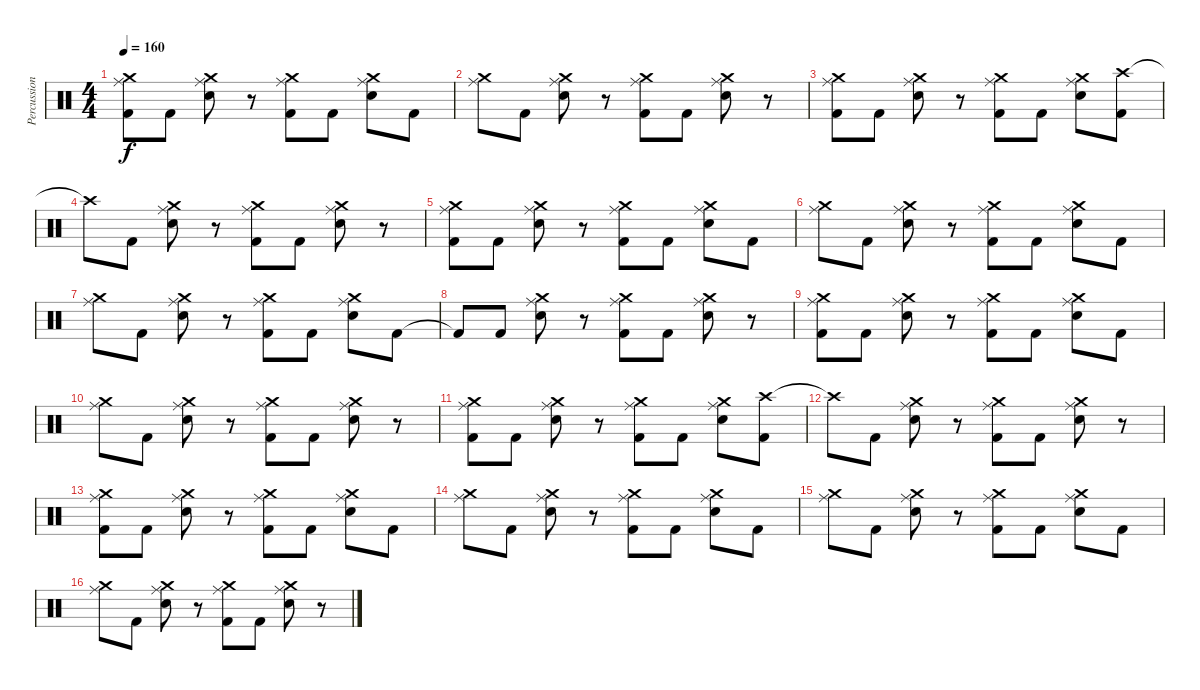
\track ("Percussion" "Percussion") {instrument percussion}
\staff {score}
\articulation defaults
\ts (4 4)
\tempo 160
\clef neutral
\ks c
("Ride (middle)" "Crash medium (hit)" "Kick (hit) 2").8{dy f} "Kick (hit) 2".8 ("Ride (middle)" "Crash medium (hit)" "Electric Snare (hit)").8 r.8 ("Ride (middle)" "Crash medium (hit)" "Kick (hit) 2").8 "Kick (hit) 2".8 ("Ride (middle)" "Crash medium (hit)" "Electric Snare (hit)").8 "Kick (hit) 2".8 |
("Ride (middle)" "Crash medium (hit)").8 "Kick (hit) 2".8 ("Ride (middle)" "Crash medium (hit)" "Electric Snare (hit)").8 r.8 ("Ride (middle)" "Crash medium (hit)" "Kick (hit) 2").8 "Kick (hit) 2".8 ("Ride (middle)" "Crash medium (hit)" "Electric Snare (hit)").8 r.8 |
("Ride (middle)" "Crash medium (hit)" "Kick (hit) 2").8 "Kick (hit) 2".8 ("Ride (middle)" "Crash medium (hit)" "Electric Snare (hit)").8 r.8 ("Ride (middle)" "Crash medium (hit)" "Kick (hit) 2").8 "Kick (hit) 2".8 ("Ride (middle)" "Crash medium (hit)" "Electric Snare (hit)").8 ("Crash high (hit)" "Kick (hit) 2").8 |
"Crash high (hit)"{t}.8 "Kick (hit) 2".8 ("Ride (middle)" "Crash medium (hit)" "Electric Snare (hit)").8 r.8 ("Ride (middle)" "Crash medium (hit)" "Kick (hit) 2").8 "Kick (hit) 2".8 ("Ride (middle)" "Crash medium (hit)" "Electric Snare (hit)").8 r.8 |
("Ride (middle)" "Crash medium (hit)" "Kick (hit) 2").8 "Kick (hit) 2".8 ("Ride (middle)" "Crash medium (hit)" "Electric Snare (hit)").8 r.8 ("Ride (middle)" "Crash medium (hit)" "Kick (hit) 2").8 "Kick (hit) 2".8 ("Ride (middle)" "Crash medium (hit)" "Electric Snare (hit)").8 "Kick (hit) 2".8 |
("Ride (middle)" "Crash medium (hit)").8 "Kick (hit) 2".8 ("Ride (middle)" "Crash medium (hit)" "Electric Snare (hit)").8 r.8 ("Ride (middle)" "Crash medium (hit)" "Kick (hit) 2").8 "Kick (hit) 2".8 ("Ride (middle)" "Crash medium (hit)" "Electric Snare (hit)").8 "Kick (hit) 2".8 |
("Ride (middle)" "Crash medium (hit)").8 "Kick (hit) 2".8 ("Ride (middle)" "Crash medium (hit)" "Electric Snare (hit)").8 r.8 ("Ride (middle)" "Crash medium (hit)" "Kick (hit) 2").8 "Kick (hit) 2".8 ("Ride (middle)" "Crash medium (hit)" "Electric Snare (hit)").8 "Kick (hit) 2".8 |
"Kick (hit) 2"{t}.8 "Kick (hit) 2".8 ("Ride (middle)" "Crash medium (hit)" "Electric Snare (hit)").8 r.8 ("Ride (middle)" "Crash medium (hit)" "Kick (hit) 2").8 "Kick (hit) 2".8 ("Ride (middle)" "Crash medium (hit)" "Electric Snare (hit)").8 r.8 |
("Ride (middle)" "Crash medium (hit)" "Kick (hit) 2").8 "Kick (hit) 2".8 ("Ride (middle)" "Crash medium (hit)" "Electric Snare (hit)").8 r.8 ("Ride (middle)" "Crash medium (hit)" "Kick (hit) 2").8 "Kick (hit) 2".8 ("Ride (middle)" "Crash medium (hit)" "Electric Snare (hit)").8 "Kick (hit) 2".8 |
("Ride (middle)" "Crash medium (hit)").8 "Kick (hit) 2".8 ("Ride (middle)" "Crash medium (hit)" "Electric Snare (hit)").8 r.8 ("Ride (middle)" "Crash medium (hit)" "Kick (hit) 2").8 "Kick (hit) 2".8 ("Ride (middle)" "Crash medium (hit)" "Electric Snare (hit)").8 r.8 |
("Ride (middle)" "Crash medium (hit)" "Kick (hit) 2").8 "Kick (hit) 2".8 ("Ride (middle)" "Crash medium (hit)" "Electric Snare (hit)").8 r.8 ("Ride (middle)" "Crash medium (hit)" "Kick (hit) 2").8 "Kick (hit) 2".8 ("Ride (middle)" "Crash medium (hit)" "Electric Snare (hit)").8 ("Crash high (hit)" "Kick (hit) 2").8 |
"Crash high (hit)"{t}.8 "Kick (hit) 2".8 ("Ride (middle)" "Crash medium (hit)" "Electric Snare (hit)").8 r.8 ("Ride (middle)" "Crash medium (hit)" "Kick (hit) 2").8 "Kick (hit) 2".8 ("Ride (middle)" "Crash medium (hit)" "Electric Snare (hit)").8 r.8 |
("Ride (middle)" "Crash medium (hit)" "Kick (hit) 2").8 "Kick (hit) 2".8 ("Ride (middle)" "Crash medium (hit)" "Electric Snare (hit)").8 r.8 ("Ride (middle)" "Crash medium (hit)" "Kick (hit) 2").8 "Kick (hit) 2".8 ("Ride (middle)" "Crash medium (hit)" "Electric Snare (hit)").8 "Kick (hit) 2".8 |
("Ride (middle)" "Crash medium (hit)").8 "Kick (hit) 2".8 ("Ride (middle)" "Crash medium (hit)" "Electric Snare (hit)").8 r.8 ("Ride (middle)" "Crash medium (hit)" "Kick (hit) 2").8 "Kick (hit) 2".8 ("Ride (middle)" "Crash medium (hit)" "Electric Snare (hit)").8 "Kick (hit) 2".8 |
("Ride (middle)" "Crash medium (hit)").8 "Kick (hit) 2".8 ("Ride (middle)" "Crash medium (hit)" "Electric Snare (hit)").8 r.8 ("Ride (middle)" "Crash medium (hit)" "Kick (hit) 2").8 "Kick (hit) 2".8 ("Ride (middle)" "Crash medium (hit)" "Electric Snare (hit)").8 "Kick (hit) 2".8 |
("Ride (middle)" "Crash medium (hit)").8 "Kick (hit) 2".8 ("Ride (middle)" "Crash medium (hit)" "Electric Snare (hit)").8 r.8 ("Ride (middle)" "Crash medium (hit)" "Kick (hit) 2").8 "Kick (hit) 2".8 ("Ride (middle)" "Crash medium (hit)" "Electric Snare (hit)").8 r.8
